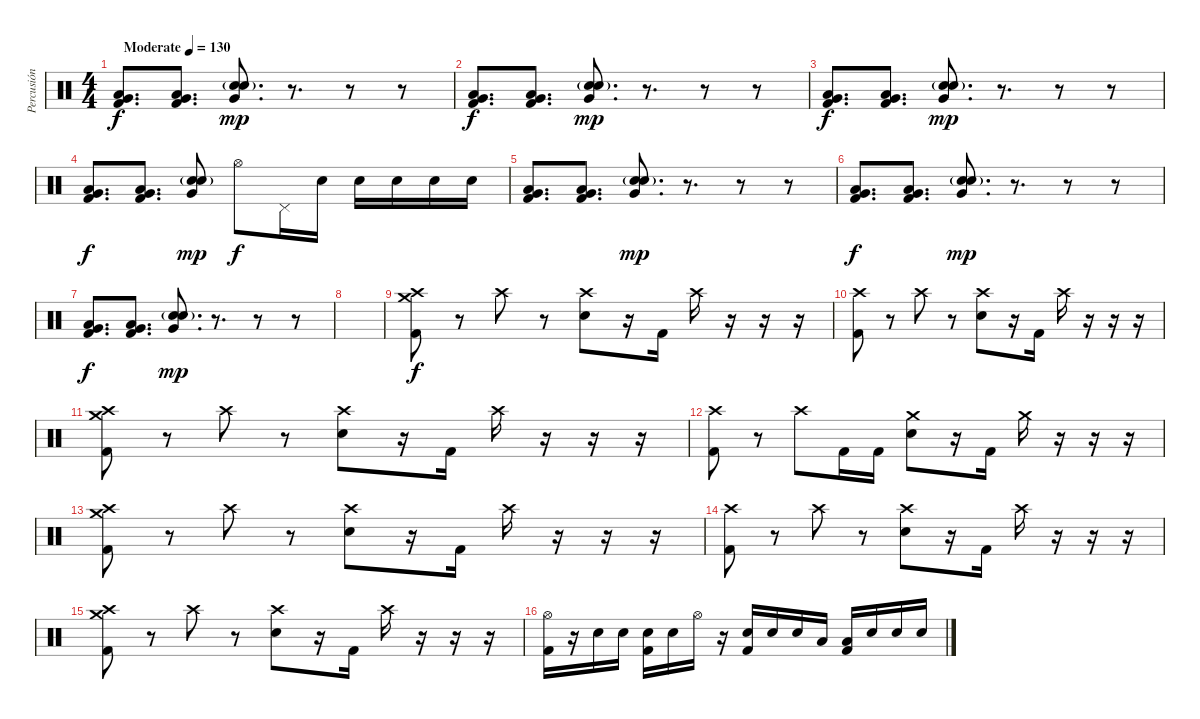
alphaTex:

\track ("Percusión" "Percusión") {instrument percussion}
\staff {score}
\articulation defaults
\ts (4 4)
\tempo (130 "Moderate")
\clef neutral
\ks c
("Low Floor Tom (hit)" "Very Low Tom (hit)" "Kick (hit) 2").8{d dy f} ("Low Floor Tom (hit)" "Very Low Tom (hit)" "Kick (hit) 2").8{d} ("Hand Clap (hit)"{g} "Very Low Tom (hit)" "Electric Snare (hit)").8{d dy mp} r.8{d} r.8 r.8 |
("Low Floor Tom (hit)" "Very Low Tom (hit)" "Kick (hit) 2").8{d dy f} ("Low Floor Tom (hit)" "Very Low Tom (hit)" "Kick (hit) 2").8{d} ("Hand Clap (hit)"{g} "Very Low Tom (hit)" "Electric Snare (hit)").8{d dy mp} r.8{d} r.8 r.8 |
("Low Floor Tom (hit)" "Very Low Tom (hit)" "Kick (hit) 2").8{d dy f} ("Low Floor Tom (hit)" "Very Low Tom (hit)" "Kick (hit) 2").8{d} ("Hand Clap (hit)"{g} "Very Low Tom (hit)" "Electric Snare (hit)").8{d dy mp} r.8{d} r.8 r.8 |
("Low Floor Tom (hit)" "Very Low Tom (hit)" "Kick (hit) 2").8{d dy f} ("Low Floor Tom (hit)" "Very Low Tom (hit)" "Kick (hit) 2").8{d} ("Hand Clap (hit)"{g} "Very Low Tom (hit)" "Electric Snare (hit)").8{dy mp} "Hi-Hat (open)".8{dy f} "Pedal Hi-Hat (hit)".16 "Electric Snare (hit)".16 "Electric Snare (hit)".16 "Electric Snare (hit)".16 "Electric Snare (hit)".16 "Electric Snare (hit)".16 |
("Low Floor Tom (hit)" "Very Low Tom (hit)" "Kick (hit) 2").8{d} ("Low Floor Tom (hit)" "Very Low Tom (hit)" "Kick (hit) 2").8{d} ("Hand Clap (hit)"{g} "Very Low Tom (hit)" "Electric Snare (hit)").8{d dy mp} r.8{d} r.8 r.8 |
("Low Floor Tom (hit)" "Very Low Tom (hit)" "Kick (hit) 2").8{d dy f} ("Low Floor Tom (hit)" "Very Low Tom (hit)" "Kick (hit) 2").8{d} ("Hand Clap (hit)"{g} "Very Low Tom (hit)" "Electric Snare (hit)").8{d dy mp} r.8{d} r.8 r.8 |
("Low Floor Tom (hit)" "Very Low Tom (hit)" "Kick (hit) 2").8{d dy f} ("Low Floor Tom (hit)" "Very Low Tom (hit)" "Kick (hit) 2").8{d} ("Hand Clap (hit)"{g} "Very Low Tom (hit)" "Electric Snare (hit)").8{d dy mp} r.8{d} r.8 r.8 |
|
("Crash medium (hit)" "Crash high (hit)" "Kick (hit) 2").8{dy f} r.8 "Crash high (hit)".8 r.8 ("Crash high (hit)" "Electric Snare (hit)").8 r.16 "Kick (hit) 2".16 "Crash high (hit)".16 r.16 r.16 r.16 |
("Crash high (hit)" "Kick (hit) 2").8 r.8 "Crash high (hit)".8 r.8 ("Crash high (hit)" "Electric Snare (hit)").8 r.16 "Kick (hit) 2".16 "Crash high (hit)".16 r.16 r.16 r.16 |
("Crash medium (hit)" "Crash high (hit)" "Kick (hit) 2").8 r.8 "Crash high (hit)".8 r.8 ("Crash high (hit)" "Electric Snare (hit)").8 r.16 "Kick (hit) 2".16 "Crash high (hit)".16 r.16 r.16 r.16 |
("Crash high (hit)" "Kick (hit) 2").8 r.8 "Crash high (hit)".8 "Kick (hit) 2".16 "Kick (hit) 2".16 ("Crash medium (hit)" "Electric Snare (hit)").8 r.16 "Kick (hit) 2".16 "Crash medium (hit)".16 r.16 r.16 r.16 |
("Crash medium (hit)" "Crash high (hit)" "Kick (hit) 2").8 r.8 "Crash high (hit)".8 r.8 ("Crash high (hit)" "Electric Snare (hit)").8 r.16 "Kick (hit) 2".16 "Crash high (hit)".16 r.16 r.16 r.16 |
("Crash high (hit)" "Kick (hit) 2").8 r.8 "Crash high (hit)".8 r.8 ("Crash high (hit)" "Electric Snare (hit)").8 r.16 "Kick (hit) 2".16 "Crash high (hit)".16 r.16 r.16 r.16 |
("Crash medium (hit)" "Crash high (hit)" "Kick (hit) 2").8 r.8 "Crash high (hit)".8 r.8 ("Crash high (hit)" "Electric Snare (hit)").8 r.16 "Kick (hit) 2".16 "Crash high (hit)".16 r.16 r.16 r.16 |
("Hi-Hat (open)" "Kick (hit) 2").16 r.16 "Electric Snare (hit)".16 "Electric Snare (hit)".16 ("Electric Snare (hit)" "Kick (hit) 2").16 "Electric Snare (hit)".16 "Hi-Hat (open)".16 r.16 ("Electric Snare (hit)" "Kick (hit) 2").16 "Electric Snare (hit)".16 "Electric Snare (hit)".16 "Low Tom (hit)".16 ("Low Tom (hit)" "Kick (hit) 2").16 "Electric Snare (hit)".16 "Electric Snare (hit)".16 "Electric Snare (hit)".16
